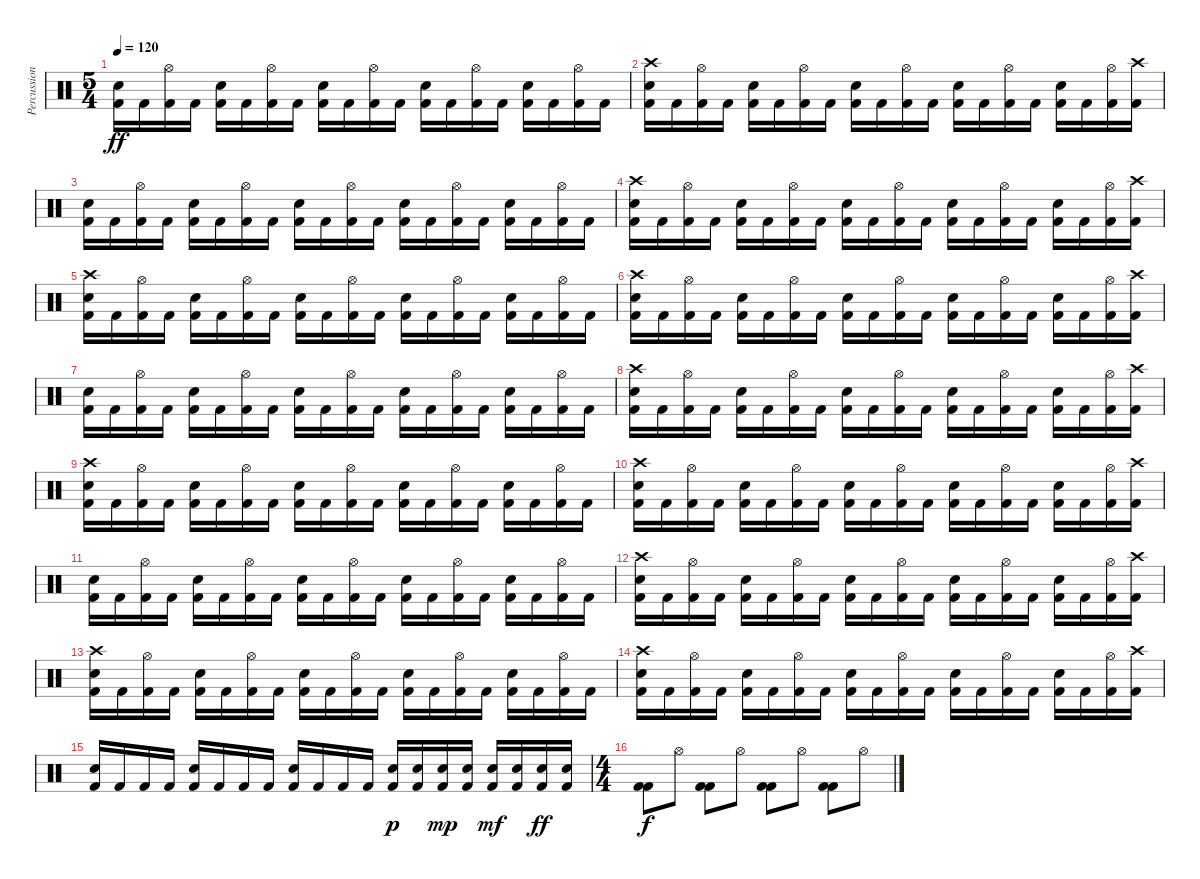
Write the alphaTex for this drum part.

\track ("Percussioni" "Percussion") {instrument percussion}
\staff {score}
\articulation defaults
\ts (5 4)
\tempo 120
\clef neutral
\ks c
("Kick (hit) 2" "Electric Snare (hit)").16{dy ff} "Kick (hit) 2".16 ("Kick (hit) 2" "Hi-Hat (open)").16 "Kick (hit) 2".16 ("Kick (hit) 2" "Electric Snare (hit)").16 "Kick (hit) 2".16 ("Kick (hit) 2" "Hi-Hat (open)").16 "Kick (hit) 2".16 ("Kick (hit) 2" "Electric Snare (hit)").16 "Kick (hit) 2".16 ("Kick (hit) 2" "Hi-Hat (open)").16 "Kick (hit) 2".16 ("Kick (hit) 2" "Electric Snare (hit)").16 "Kick (hit) 2".16 ("Kick (hit) 2" "Hi-Hat (open)").16 "Kick (hit) 2".16 ("Kick (hit) 2" "Electric Snare (hit)").16 "Kick (hit) 2".16 ("Kick (hit) 2" "Hi-Hat (open)").16 "Kick (hit) 2".16 |
("Kick (hit) 2" "Crash high (hit)" "Electric Snare (hit)").16 "Kick (hit) 2".16 ("Kick (hit) 2" "Hi-Hat (open)").16 "Kick (hit) 2".16 ("Kick (hit) 2" "Electric Snare (hit)").16 "Kick (hit) 2".16 ("Kick (hit) 2" "Hi-Hat (open)").16 "Kick (hit) 2".16 ("Kick (hit) 2" "Electric Snare (hit)").16 "Kick (hit) 2".16 ("Kick (hit) 2" "Hi-Hat (open)").16 "Kick (hit) 2".16 ("Kick (hit) 2" "Electric Snare (hit)").16 "Kick (hit) 2".16 ("Kick (hit) 2" "Hi-Hat (open)").16 "Kick (hit) 2".16 ("Kick (hit) 2" "Electric Snare (hit)").16 "Kick (hit) 2".16 ("Kick (hit) 2" "Hi-Hat (open)").16 ("Kick (hit) 2" "Crash high (hit)").16 |
("Kick (hit) 2" "Electric Snare (hit)").16 "Kick (hit) 2".16 ("Kick (hit) 2" "Hi-Hat (open)").16 "Kick (hit) 2".16 ("Kick (hit) 2" "Electric Snare (hit)").16 "Kick (hit) 2".16 ("Kick (hit) 2" "Hi-Hat (open)").16 "Kick (hit) 2".16 ("Kick (hit) 2" "Electric Snare (hit)").16 "Kick (hit) 2".16 ("Kick (hit) 2" "Hi-Hat (open)").16 "Kick (hit) 2".16 ("Kick (hit) 2" "Electric Snare (hit)").16 "Kick (hit) 2".16 ("Kick (hit) 2" "Hi-Hat (open)").16 "Kick (hit) 2".16 ("Kick (hit) 2" "Electric Snare (hit)").16 "Kick (hit) 2".16 ("Kick (hit) 2" "Hi-Hat (open)").16 "Kick (hit) 2".16 |
("Kick (hit) 2" "Crash high (hit)" "Electric Snare (hit)").16 "Kick (hit) 2".16 ("Kick (hit) 2" "Hi-Hat (open)").16 "Kick (hit) 2".16 ("Kick (hit) 2" "Electric Snare (hit)").16 "Kick (hit) 2".16 ("Kick (hit) 2" "Hi-Hat (open)").16 "Kick (hit) 2".16 ("Kick (hit) 2" "Electric Snare (hit)").16 "Kick (hit) 2".16 ("Kick (hit) 2" "Hi-Hat (open)").16 "Kick (hit) 2".16 ("Kick (hit) 2" "Electric Snare (hit)").16 "Kick (hit) 2".16 ("Kick (hit) 2" "Hi-Hat (open)").16 "Kick (hit) 2".16 ("Kick (hit) 2" "Electric Snare (hit)").16 "Kick (hit) 2".16 ("Kick (hit) 2" "Hi-Hat (open)").16 ("Kick (hit) 2" "Crash high (hit)").16 |
("Kick (hit) 2" "Crash high (hit)" "Electric Snare (hit)").16 "Kick (hit) 2".16 ("Kick (hit) 2" "Hi-Hat (open)").16 "Kick (hit) 2".16 ("Kick (hit) 2" "Electric Snare (hit)").16 "Kick (hit) 2".16 ("Kick (hit) 2" "Hi-Hat (open)").16 "Kick (hit) 2".16 ("Kick (hit) 2" "Electric Snare (hit)").16 "Kick (hit) 2".16 ("Kick (hit) 2" "Hi-Hat (open)").16 "Kick (hit) 2".16 ("Kick (hit) 2" "Electric Snare (hit)").16 "Kick (hit) 2".16 ("Kick (hit) 2" "Hi-Hat (open)").16 "Kick (hit) 2".16 ("Kick (hit) 2" "Electric Snare (hit)").16 "Kick (hit) 2".16 ("Kick (hit) 2" "Hi-Hat (open)").16 "Kick (hit) 2".16 |
("Kick (hit) 2" "Crash high (hit)" "Electric Snare (hit)").16 "Kick (hit) 2".16 ("Kick (hit) 2" "Hi-Hat (open)").16 "Kick (hit) 2".16 ("Kick (hit) 2" "Electric Snare (hit)").16 "Kick (hit) 2".16 ("Kick (hit) 2" "Hi-Hat (open)").16 "Kick (hit) 2".16 ("Kick (hit) 2" "Electric Snare (hit)").16 "Kick (hit) 2".16 ("Kick (hit) 2" "Hi-Hat (open)").16 "Kick (hit) 2".16 ("Kick (hit) 2" "Electric Snare (hit)").16 "Kick (hit) 2".16 ("Kick (hit) 2" "Hi-Hat (open)").16 "Kick (hit) 2".16 ("Kick (hit) 2" "Electric Snare (hit)").16 "Kick (hit) 2".16 ("Kick (hit) 2" "Hi-Hat (open)").16 ("Kick (hit) 2" "Crash high (hit)").16 |
("Kick (hit) 2" "Electric Snare (hit)").16 "Kick (hit) 2".16 ("Kick (hit) 2" "Hi-Hat (open)").16 "Kick (hit) 2".16 ("Kick (hit) 2" "Electric Snare (hit)").16 "Kick (hit) 2".16 ("Kick (hit) 2" "Hi-Hat (open)").16 "Kick (hit) 2".16 ("Kick (hit) 2" "Electric Snare (hit)").16 "Kick (hit) 2".16 ("Kick (hit) 2" "Hi-Hat (open)").16 "Kick (hit) 2".16 ("Kick (hit) 2" "Electric Snare (hit)").16 "Kick (hit) 2".16 ("Kick (hit) 2" "Hi-Hat (open)").16 "Kick (hit) 2".16 ("Kick (hit) 2" "Electric Snare (hit)").16 "Kick (hit) 2".16 ("Kick (hit) 2" "Hi-Hat (open)").16 "Kick (hit) 2".16 |
("Kick (hit) 2" "Crash high (hit)" "Electric Snare (hit)").16 "Kick (hit) 2".16 ("Kick (hit) 2" "Hi-Hat (open)").16 "Kick (hit) 2".16 ("Kick (hit) 2" "Electric Snare (hit)").16 "Kick (hit) 2".16 ("Kick (hit) 2" "Hi-Hat (open)").16 "Kick (hit) 2".16 ("Kick (hit) 2" "Electric Snare (hit)").16 "Kick (hit) 2".16 ("Kick (hit) 2" "Hi-Hat (open)").16 "Kick (hit) 2".16 ("Kick (hit) 2" "Electric Snare (hit)").16 "Kick (hit) 2".16 ("Kick (hit) 2" "Hi-Hat (open)").16 "Kick (hit) 2".16 ("Kick (hit) 2" "Electric Snare (hit)").16 "Kick (hit) 2".16 ("Kick (hit) 2" "Hi-Hat (open)").16 ("Kick (hit) 2" "Crash high (hit)").16 |
("Kick (hit) 2" "Crash high (hit)" "Electric Snare (hit)").16 "Kick (hit) 2".16 ("Kick (hit) 2" "Hi-Hat (open)").16 "Kick (hit) 2".16 ("Kick (hit) 2" "Electric Snare (hit)").16 "Kick (hit) 2".16 ("Kick (hit) 2" "Hi-Hat (open)").16 "Kick (hit) 2".16 ("Kick (hit) 2" "Electric Snare (hit)").16 "Kick (hit) 2".16 ("Kick (hit) 2" "Hi-Hat (open)").16 "Kick (hit) 2".16 ("Kick (hit) 2" "Electric Snare (hit)").16 "Kick (hit) 2".16 ("Kick (hit) 2" "Hi-Hat (open)").16 "Kick (hit) 2".16 ("Kick (hit) 2" "Electric Snare (hit)").16 "Kick (hit) 2".16 ("Kick (hit) 2" "Hi-Hat (open)").16 "Kick (hit) 2".16 |
("Kick (hit) 2" "Crash high (hit)" "Electric Snare (hit)").16 "Kick (hit) 2".16 ("Kick (hit) 2" "Hi-Hat (open)").16 "Kick (hit) 2".16 ("Kick (hit) 2" "Electric Snare (hit)").16 "Kick (hit) 2".16 ("Kick (hit) 2" "Hi-Hat (open)").16 "Kick (hit) 2".16 ("Kick (hit) 2" "Electric Snare (hit)").16 "Kick (hit) 2".16 ("Kick (hit) 2" "Hi-Hat (open)").16 "Kick (hit) 2".16 ("Kick (hit) 2" "Electric Snare (hit)").16 "Kick (hit) 2".16 ("Kick (hit) 2" "Hi-Hat (open)").16 "Kick (hit) 2".16 ("Kick (hit) 2" "Electric Snare (hit)").16 "Kick (hit) 2".16 ("Kick (hit) 2" "Hi-Hat (open)").16 ("Kick (hit) 2" "Crash high (hit)").16 |
("Kick (hit) 2" "Electric Snare (hit)").16 "Kick (hit) 2".16 ("Kick (hit) 2" "Hi-Hat (open)").16 "Kick (hit) 2".16 ("Kick (hit) 2" "Electric Snare (hit)").16 "Kick (hit) 2".16 ("Kick (hit) 2" "Hi-Hat (open)").16 "Kick (hit) 2".16 ("Kick (hit) 2" "Electric Snare (hit)").16 "Kick (hit) 2".16 ("Kick (hit) 2" "Hi-Hat (open)").16 "Kick (hit) 2".16 ("Kick (hit) 2" "Electric Snare (hit)").16 "Kick (hit) 2".16 ("Kick (hit) 2" "Hi-Hat (open)").16 "Kick (hit) 2".16 ("Kick (hit) 2" "Electric Snare (hit)").16 "Kick (hit) 2".16 ("Kick (hit) 2" "Hi-Hat (open)").16 "Kick (hit) 2".16 |
("Kick (hit) 2" "Crash high (hit)" "Electric Snare (hit)").16 "Kick (hit) 2".16 ("Kick (hit) 2" "Hi-Hat (open)").16 "Kick (hit) 2".16 ("Kick (hit) 2" "Electric Snare (hit)").16 "Kick (hit) 2".16 ("Kick (hit) 2" "Hi-Hat (open)").16 "Kick (hit) 2".16 ("Kick (hit) 2" "Electric Snare (hit)").16 "Kick (hit) 2".16 ("Kick (hit) 2" "Hi-Hat (open)").16 "Kick (hit) 2".16 ("Kick (hit) 2" "Electric Snare (hit)").16 "Kick (hit) 2".16 ("Kick (hit) 2" "Hi-Hat (open)").16 "Kick (hit) 2".16 ("Kick (hit) 2" "Electric Snare (hit)").16 "Kick (hit) 2".16 ("Kick (hit) 2" "Hi-Hat (open)").16 ("Kick (hit) 2" "Crash high (hit)").16 |
("Kick (hit) 2" "Crash high (hit)" "Electric Snare (hit)").16 "Kick (hit) 2".16 ("Kick (hit) 2" "Hi-Hat (open)").16 "Kick (hit) 2".16 ("Kick (hit) 2" "Electric Snare (hit)").16 "Kick (hit) 2".16 ("Kick (hit) 2" "Hi-Hat (open)").16 "Kick (hit) 2".16 ("Kick (hit) 2" "Electric Snare (hit)").16 "Kick (hit) 2".16 ("Kick (hit) 2" "Hi-Hat (open)").16 "Kick (hit) 2".16 ("Kick (hit) 2" "Electric Snare (hit)").16 "Kick (hit) 2".16 ("Kick (hit) 2" "Hi-Hat (open)").16 "Kick (hit) 2".16 ("Kick (hit) 2" "Electric Snare (hit)").16 "Kick (hit) 2".16 ("Kick (hit) 2" "Hi-Hat (open)").16 "Kick (hit) 2".16 |
("Kick (hit) 2" "Crash high (hit)" "Electric Snare (hit)").16 "Kick (hit) 2".16 ("Kick (hit) 2" "Hi-Hat (open)").16 "Kick (hit) 2".16 ("Kick (hit) 2" "Electric Snare (hit)").16 "Kick (hit) 2".16 ("Kick (hit) 2" "Hi-Hat (open)").16 "Kick (hit) 2".16 ("Kick (hit) 2" "Electric Snare (hit)").16 "Kick (hit) 2".16 ("Kick (hit) 2" "Hi-Hat (open)").16 "Kick (hit) 2".16 ("Kick (hit) 2" "Electric Snare (hit)").16 "Kick (hit) 2".16 ("Kick (hit) 2" "Hi-Hat (open)").16 "Kick (hit) 2".16 ("Kick (hit) 2" "Electric Snare (hit)").16 "Kick (hit) 2".16 ("Kick (hit) 2" "Hi-Hat (open)").16 ("Kick (hit) 2" "Crash high (hit)").16 |
("Kick (hit) 2" "Electric Snare (hit)").16 "Kick (hit) 2".16 "Kick (hit) 2".16 "Kick (hit) 2".16 ("Kick (hit) 2" "Electric Snare (hit)").16 "Kick (hit) 2".16 "Kick (hit) 2".16 "Kick (hit) 2".16 ("Kick (hit) 2" "Electric Snare (hit)").16 "Kick (hit) 2".16 "Kick (hit) 2".16 "Kick (hit) 2".16 ("Kick (hit) 2" "Electric Snare (hit)").16{dy p} ("Kick (hit) 2" "Electric Snare (hit)").16 ("Kick (hit) 2" "Electric Snare (hit)").16{dy mp} ("Kick (hit) 2" "Electric Snare (hit)").16 ("Kick (hit) 2" "Electric Snare (hit)").16{dy mf} ("Kick (hit) 2" "Electric Snare (hit)").16 ("Kick (hit) 2" "Electric Snare (hit)").16{dy ff} ("Kick (hit) 2" "Electric Snare (hit)").16 |
\ts (4 4)
("Kick (hit) 2" "Kick (hit) 2").8{dy f} "Hi-Hat (open)".8 ("Kick (hit) 2" "Kick (hit) 2").8 "Hi-Hat (open)".8 ("Kick (hit) 2" "Kick (hit) 2").8 "Hi-Hat (open)".8 ("Kick (hit) 2" "Kick (hit) 2").8 "Hi-Hat (open)".8
